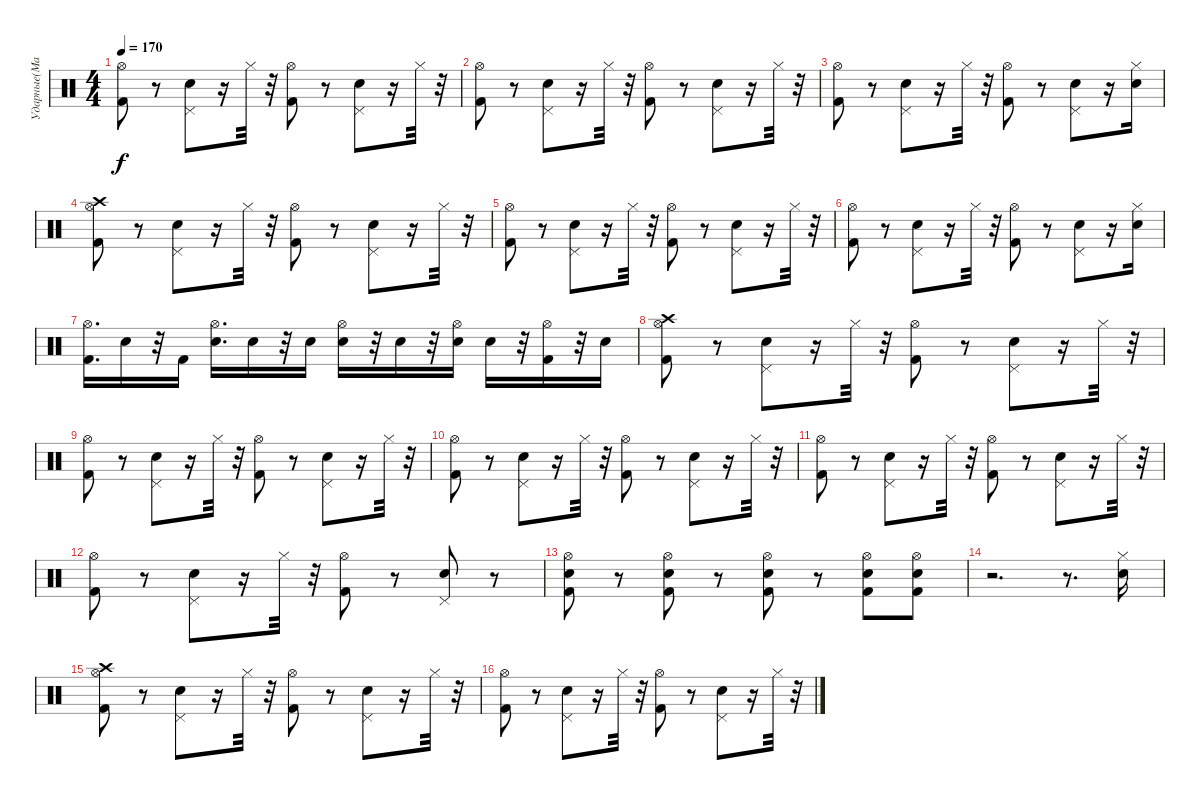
\track ("Ударные(Май)" "Ударные(Ма") {instrument percussion}
\staff {score}
\articulation defaults
\ts (4 4)
\tempo 170
\clef neutral
\ks c
("Hi-Hat (open)" "Kick (hit) 2").8{dy f} r.8 ("Electric Snare (hit)" "Pedal Hi-Hat (hit)").8 r.16 "Hi-Hat (closed)".32 r.32 ("Kick (hit) 2" "Hi-Hat (open)").8 r.8 ("Electric Snare (hit)" "Pedal Hi-Hat (hit)").8 r.16 "Hi-Hat (closed)".32 r.32 |
("Hi-Hat (open)" "Kick (hit) 2").8 r.8 ("Electric Snare (hit)" "Pedal Hi-Hat (hit)").8 r.16 "Hi-Hat (closed)".32 r.32 ("Kick (hit) 2" "Hi-Hat (open)").8 r.8 ("Electric Snare (hit)" "Pedal Hi-Hat (hit)").8 r.16 "Hi-Hat (closed)".32 r.32 |
("Hi-Hat (open)" "Kick (hit) 2").8 r.8 ("Electric Snare (hit)" "Pedal Hi-Hat (hit)").8 r.16 "Hi-Hat (closed)".32 r.32 ("Kick (hit) 2" "Hi-Hat (open)").8 r.8 ("Electric Snare (hit)" "Pedal Hi-Hat (hit)").8 r.16 ("Hi-Hat (closed)" "Electric Snare (hit)").16 |
("Crash high (hit)" "Hi-Hat (open)" "Kick (hit) 2").8 r.8 ("Electric Snare (hit)" "Pedal Hi-Hat (hit)").8 r.16 "Hi-Hat (closed)".32 r.32 ("Kick (hit) 2" "Hi-Hat (open)").8 r.8 ("Electric Snare (hit)" "Pedal Hi-Hat (hit)").8 r.16 "Hi-Hat (closed)".32 r.32 |
("Hi-Hat (open)" "Kick (hit) 2").8 r.8 ("Electric Snare (hit)" "Pedal Hi-Hat (hit)").8 r.16 "Hi-Hat (closed)".32 r.32 ("Kick (hit) 2" "Hi-Hat (open)").8 r.8 ("Electric Snare (hit)" "Pedal Hi-Hat (hit)").8 r.16 "Hi-Hat (closed)".32 r.32 |
("Hi-Hat (open)" "Kick (hit) 2").8 r.8 ("Electric Snare (hit)" "Pedal Hi-Hat (hit)").8 r.16 "Hi-Hat (closed)".32 r.32 ("Kick (hit) 2" "Hi-Hat (open)").8 r.8 ("Electric Snare (hit)" "Pedal Hi-Hat (hit)").8 r.16 ("Hi-Hat (closed)" "Electric Snare (hit)").16 |
("Kick (hit) 2" "Hi-Hat (open)").16{d} "Electric Snare (hit)".16 r.32 "Kick (hit) 2".16 ("Electric Snare (hit)" "Hi-Hat (open)").16{d} "Snare (hit) 2".16 r.32 "Electric Snare (hit)".16 ("Hi-Hat (open)" "Electric Snare (hit)").16 r.32 "Snare (hit) 2".16 r.32 ("Hi-Hat (open)" "Electric Snare (hit)").16 "Electric Snare (hit)".16 r.32 ("Hi-Hat (open)" "Kick (hit) 2").16 r.32 "Electric Snare (hit)".16 |
("Crash high (hit)" "Hi-Hat (open)" "Kick (hit) 2").8 r.8 ("Electric Snare (hit)" "Pedal Hi-Hat (hit)").8 r.16 "Hi-Hat (closed)".32 r.32 ("Kick (hit) 2" "Hi-Hat (open)").8 r.8 ("Electric Snare (hit)" "Pedal Hi-Hat (hit)").8 r.16 "Hi-Hat (closed)".32 r.32 |
("Hi-Hat (open)" "Kick (hit) 2").8 r.8 ("Electric Snare (hit)" "Pedal Hi-Hat (hit)").8 r.16 "Hi-Hat (closed)".32 r.32 ("Kick (hit) 2" "Hi-Hat (open)").8 r.8 ("Electric Snare (hit)" "Pedal Hi-Hat (hit)").8 r.16 "Hi-Hat (closed)".32 r.32 |
("Hi-Hat (open)" "Kick (hit) 2").8 r.8 ("Electric Snare (hit)" "Pedal Hi-Hat (hit)").8 r.16 "Hi-Hat (closed)".32 r.32 ("Kick (hit) 2" "Hi-Hat (open)").8 r.8 ("Electric Snare (hit)" "Pedal Hi-Hat (hit)").8 r.16 "Hi-Hat (closed)".32 r.32 |
("Hi-Hat (open)" "Kick (hit) 2").8 r.8 ("Electric Snare (hit)" "Pedal Hi-Hat (hit)").8 r.16 "Hi-Hat (closed)".32 r.32 ("Kick (hit) 2" "Hi-Hat (open)").8 r.8 ("Electric Snare (hit)" "Pedal Hi-Hat (hit)").8 r.16 "Hi-Hat (closed)".32 r.32 |
("Hi-Hat (open)" "Kick (hit) 2").8 r.8 ("Electric Snare (hit)" "Pedal Hi-Hat (hit)").8 r.16 "Hi-Hat (closed)".32 r.32 ("Kick (hit) 2" "Hi-Hat (open)").8 r.8 ("Electric Snare (hit)" "Pedal Hi-Hat (hit)").8 r.8 |
("Kick (hit) 2" "Electric Snare (hit)" "Hi-Hat (open)").8 r.8 ("Kick (hit) 2" "Electric Snare (hit)" "Hi-Hat (open)").8 r.8 ("Kick (hit) 2" "Electric Snare (hit)" "Hi-Hat (open)").8 r.8 ("Kick (hit) 2" "Electric Snare (hit)" "Hi-Hat (open)").8 ("Hi-Hat (open)" "Electric Snare (hit)" "Kick (hit) 2").8 |
r.2{d} r.8{d} ("Electric Snare (hit)" "Hi-Hat (closed)").16 |
("Crash high (hit)" "Hi-Hat (open)" "Kick (hit) 2").8 r.8 ("Electric Snare (hit)" "Pedal Hi-Hat (hit)").8 r.16 "Hi-Hat (closed)".32 r.32 ("Kick (hit) 2" "Hi-Hat (open)").8 r.8 ("Electric Snare (hit)" "Pedal Hi-Hat (hit)").8 r.16 "Hi-Hat (closed)".32 r.32 |
("Hi-Hat (open)" "Kick (hit) 2").8 r.8 ("Electric Snare (hit)" "Pedal Hi-Hat (hit)").8 r.16 "Hi-Hat (closed)".32 r.32 ("Kick (hit) 2" "Hi-Hat (open)").8 r.8 ("Electric Snare (hit)" "Pedal Hi-Hat (hit)").8 r.16 "Hi-Hat (closed)".32 r.32
